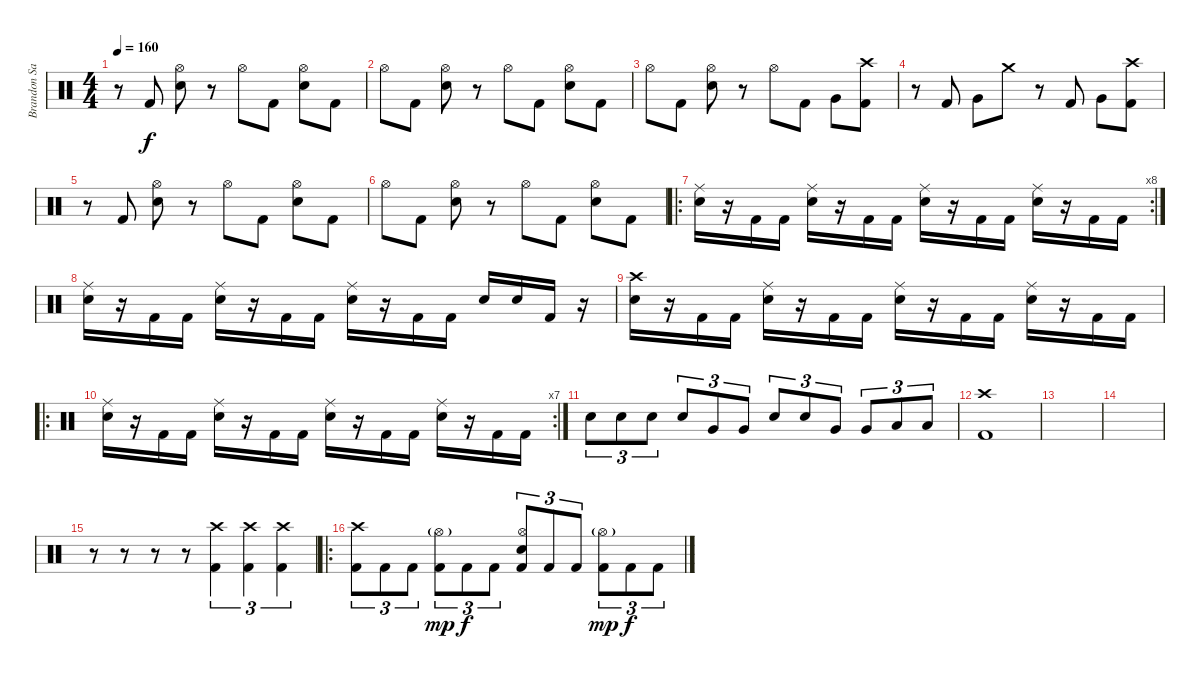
\track ("Brandon Saller" "Brandon Sa") {instrument percussion}
\staff {score}
\articulation defaults
\ts (4 4)
\tempo 160
\clef neutral
\ks c
r.8{dy f} "Kick (hit) 2".8 ("Hi-Hat (open)" "Electric Snare (hit)").8 r.8 "Hi-Hat (open)".8 "Kick (hit) 2".8 ("Hi-Hat (open)" "Electric Snare (hit)").8 "Kick (hit) 2".8 |
"Hi-Hat (open)".8 "Kick (hit) 2".8 ("Hi-Hat (open)" "Electric Snare (hit)").8 r.8 "Hi-Hat (open)".8 "Kick (hit) 2".8 ("Hi-Hat (open)" "Electric Snare (hit)").8 "Kick (hit) 2".8 |
"Hi-Hat (open)".8 "Kick (hit) 2".8 ("Hi-Hat (open)" "Electric Snare (hit)").8 r.8 "Hi-Hat (open)".8 "Kick (hit) 2".8 "Very Low Tom (hit)".8 ("Crash high (hit)" "Kick (hit) 2").8 |
r.8 "Kick (hit) 2".8 "Very Low Tom (hit)".8 "Crash medium (hit)".8 r.8 "Kick (hit) 2".8 "Very Low Tom (hit)".8 ("Crash high (hit)" "Kick (hit) 2").8 |
r.8 "Kick (hit) 2".8 ("Hi-Hat (open)" "Electric Snare (hit)").8 r.8 "Hi-Hat (open)".8 "Kick (hit) 2".8 ("Hi-Hat (open)" "Electric Snare (hit)").8 "Kick (hit) 2".8 |
"Hi-Hat (open)".8 "Kick (hit) 2".8 ("Hi-Hat (open)" "Electric Snare (hit)").8 r.8 "Hi-Hat (open)".8 "Kick (hit) 2".8 ("Hi-Hat (open)" "Electric Snare (hit)").8 "Kick (hit) 2".8 |
\ro
\rc 8
("Ride (middle)" "Electric Snare (hit)").16 r.16 "Kick (hit) 2".16 "Kick (hit) 2".16 ("Ride (middle)" "Electric Snare (hit)").16 r.16 "Kick (hit) 2".16 "Kick (hit) 2".16 ("Ride (middle)" "Electric Snare (hit)").16 r.16 "Kick (hit) 2".16 "Kick (hit) 2".16 ("Ride (middle)" "Electric Snare (hit)").16 r.16 "Kick (hit) 2".16 "Kick (hit) 2".16 |
("Ride (middle)" "Electric Snare (hit)").16 r.16 "Kick (hit) 2".16 "Kick (hit) 2".16 ("Ride (middle)" "Electric Snare (hit)").16 r.16 "Kick (hit) 2".16 "Kick (hit) 2".16 ("Ride (middle)" "Electric Snare (hit)").16 r.16 "Kick (hit) 2".16 "Kick (hit) 2".16 "Electric Snare (hit)".16 "Electric Snare (hit)".16 "Kick (hit) 2".16 r.16 |
("Crash high (hit)" "Electric Snare (hit)").16 r.16 "Kick (hit) 2".16 "Kick (hit) 2".16 ("Ride (middle)" "Electric Snare (hit)").16 r.16 "Kick (hit) 2".16 "Kick (hit) 2".16 ("Ride (middle)" "Electric Snare (hit)").16 r.16 "Kick (hit) 2".16 "Kick (hit) 2".16 ("Ride (middle)" "Electric Snare (hit)").16 r.16 "Kick (hit) 2".16 "Kick (hit) 2".16 |
\ro
\rc 7
("Ride (middle)" "Electric Snare (hit)").16 r.16 "Kick (hit) 2".16 "Kick (hit) 2".16 ("Ride (middle)" "Electric Snare (hit)").16 r.16 "Kick (hit) 2".16 "Kick (hit) 2".16 ("Ride (middle)" "Electric Snare (hit)").16 r.16 "Kick (hit) 2".16 "Kick (hit) 2".16 ("Ride (middle)" "Electric Snare (hit)").16 r.16 "Kick (hit) 2".16 "Kick (hit) 2".16 |
"Electric Snare (hit)".8{tu (3 2)} "Electric Snare (hit)".8{tu (3 2)} "Electric Snare (hit)".8{tu (3 2)} "Electric Snare (hit)".8{tu (3 2)} "Very Low Tom (hit)".8{tu (3 2)} "Very Low Tom (hit)".8{tu (3 2)} "Electric Snare (hit)".8{tu (3 2)} "Electric Snare (hit)".8{tu (3 2)} "Very Low Tom (hit)".8{tu (3 2)} "Very Low Tom (hit)".8{tu (3 2)} "Low Floor Tom (hit)".8{tu (3 2)} "Low Floor Tom (hit)".8{tu (3 2)} |
("Crash high (hit)" "Kick (hit) 2").1 |
|
|
r.8 r.8 r.8 r.8 ("Crash high (hit)" "Kick (hit) 2").4{tu (3 2)} ("Crash high (hit)" "Kick (hit) 2").4{tu (3 2)} ("Crash high (hit)" "Kick (hit) 2").4{tu (3 2)} |
\ro
("Crash high (hit)" "Kick (hit) 2").8{tu (3 2)} "Kick (hit) 2".8{tu (3 2)} "Kick (hit) 2".8{tu (3 2)} ("Hi-Hat (open)"{g} "Kick (hit) 2").8{tu (3 2) dy mp} "Kick (hit) 2".8{tu (3 2) dy f} "Kick (hit) 2".8{tu (3 2)} ("Hi-Hat (open)" "Electric Snare (hit)" "Kick (hit) 2").8{tu (3 2)} "Kick (hit) 2".8{tu (3 2)} "Kick (hit) 2".8{tu (3 2)} ("Hi-Hat (open)"{g} "Kick (hit) 2").8{tu (3 2) dy mp} "Kick (hit) 2".8{tu (3 2) dy f} "Kick (hit) 2".8{tu (3 2)}
